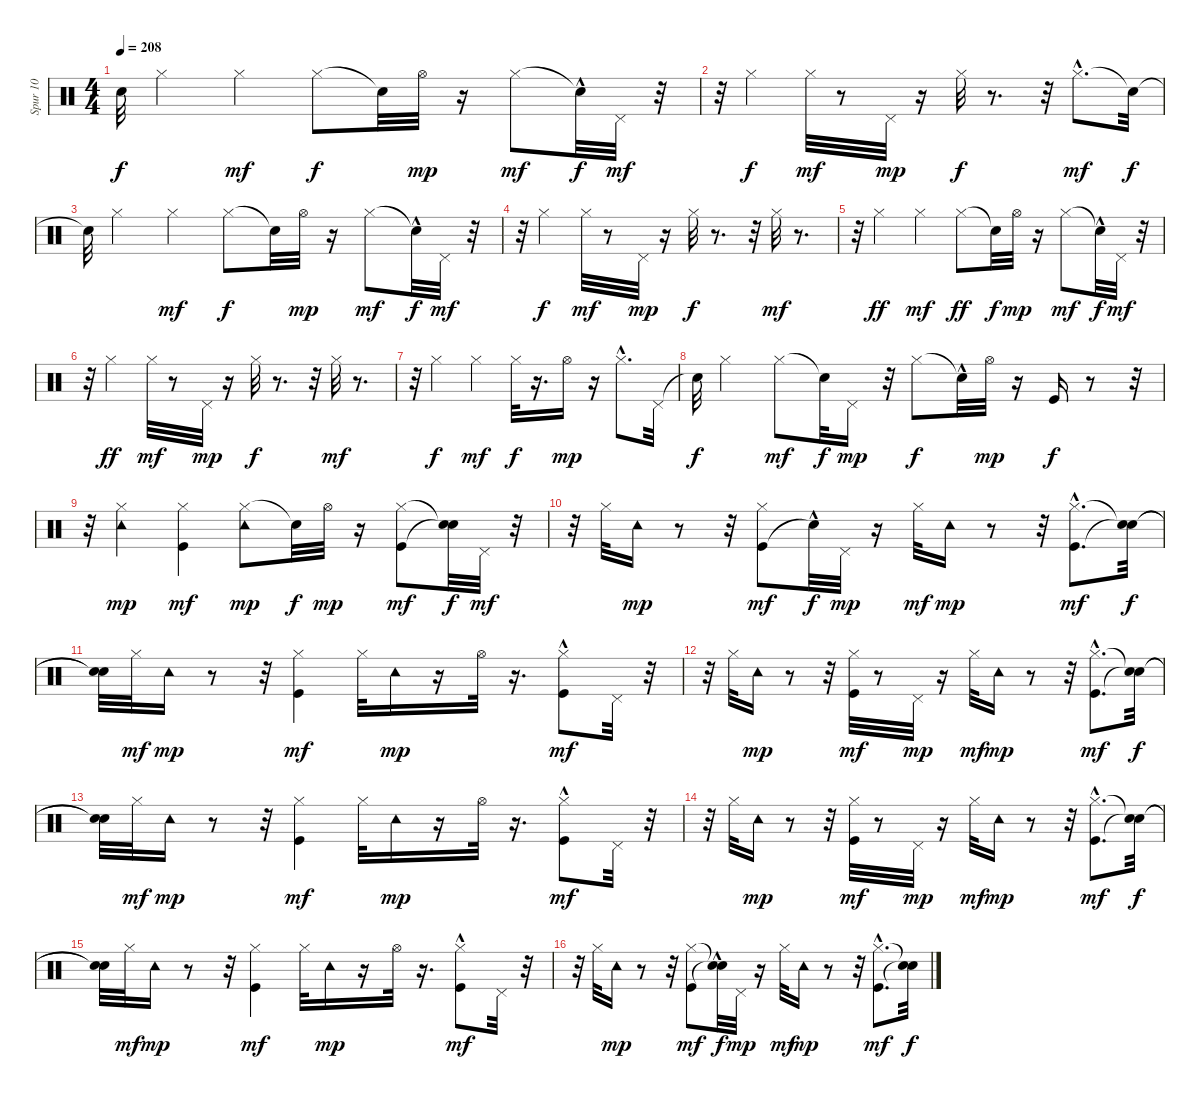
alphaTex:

\track ("Spur 10" "Spur 10") {instrument percussion}
\staff {score}
\articulation defaults
\ts (4 4)
\tempo 208
\clef neutral
\ks c "Snare (hit)"{t}.32{dy f} "Hi-Hat (closed)".4 "Hi-Hat (closed)".4{dy mf} "Hi-Hat (closed)".8{dy f} "Snare (hit)"{t}.32 "Hi-Hat (open)".32{dy mp}
r.16 "Hi-Hat (closed)".8{dy mf} "Snare (hit)"{hac t}.32{dy f} "Pedal Hi-Hat (hit)".32{dy mf} r.32 |
r.32 "Hi-Hat (closed)".4{dy f} "Hi-Hat (closed)".32{dy mf} r.8 "Pedal Hi-Hat (hit)".32{dy mp} r.16 "Hi-Hat (closed)".32{dy f} r.8{d} r.32 "Hi-Hat (closed)"{hac}.8{d dy mf} "Snare (hit)"{t}.32{dy f} |
"Snare (hit)"{t}.32 "Hi-Hat (closed)".4 "Hi-Hat (closed)".4{dy mf} "Hi-Hat (closed)".8{dy f} "Snare (hit)"{t}.32 "Hi-Hat (open)".32{dy mp} r.16 "Hi-Hat (closed)".8{dy mf} "Snare (hit)"{hac t}.32{dy f} "Pedal Hi-Hat (hit)".32{dy mf} r.32 |
r.32 "Hi-Hat (closed)".4{dy f} "Hi-Hat (closed)".32{dy mf} r.8 "Pedal Hi-Hat (hit)".32{dy mp} r.16 "Hi-Hat (closed)".32{dy f} r.8{d} r.32 "Hi-Hat (closed)".32{dy mf} r.8{d} |
r.32 "Hi-Hat (closed)".4{dy ff} "Hi-Hat (closed)".4{dy mf} "Hi-Hat (closed)".8{dy ff} "Snare (hit)"{t}.32{dy f} "Hi-Hat (open)".32{dy mp} r.16 "Hi-Hat (closed)".8{dy mf} "Snare (hit)"{hac t}.32{dy f} "Pedal Hi-Hat (hit)".32{dy mf} r.32 |
r.32 "Hi-Hat (closed)".4{dy ff} "Hi-Hat (closed)".32{dy mf} r.8 "Pedal Hi-Hat (hit)".32{dy mp} r.16 "Hi-Hat (closed)".32{dy f} r.8{d} r.32 "Hi-Hat (closed)".32{dy mf} r.8{d} |
r.32 "Hi-Hat (closed)".4{dy f} "Hi-Hat (closed)".4{dy mf} "Hi-Hat (closed)".32{dy f} r.16{d} "Hi-Hat (open)".16{dy mp} r.16 "Hi-Hat (closed)"{hac}.8{d} "Pedal Hi-Hat (hit)".32 |
"Snare (hit)"{t}.32{dy f} "Hi-Hat (closed)".4 "Hi-Hat (closed)".8{dy mf} "Snare (hit)"{t}.32{dy f} "Pedal Hi-Hat (hit)".16{dy mp} r.32 "Hi-Hat (closed)".8{dy f} "Snare (hit)"{hac t}.32 "Hi-Hat (open)".32{dy mp} r.16 "Kick (hit)".16{dy f} r.8 r.32 |
r.32 ("Hi-Hat (closed)" "Tambourine (hit)").4{dy mp} ("Hi-Hat (closed)" "Kick (hit)").4{dy mf} ("Hi-Hat (closed)" "Tambourine (hit)").8{dy mp} "Snare (hit)"{t}.32{dy f} "Hi-Hat (open)".32{dy mp} r.16 ("Hi-Hat (closed)" "Kick (hit)").8{dy mf} ("Snare (hit)"{t} "Snare (hit)"{t}).32{dy f} "Pedal Hi-Hat (hit)".32{dy mf} r.32 |
r.32 "Hi-Hat (closed)".32 "Tambourine (hit)".16{dy mp} r.8 r.32 ("Kick (hit)" "Hi-Hat (closed)").8{dy mf} "Snare (hit)"{hac t}.32{dy f} "Pedal Hi-Hat (hit)".32{dy mp} r.16 "Hi-Hat (closed)".32{dy mf} "Tambourine (hit)".16{dy mp} r.8 r.32 ("Kick (hit)"{hac} "Hi-Hat (closed)"{hac}).8{d dy mf} ("Snare (hit)"{t} "Snare (hit)"{t}).32{dy f} |
("Snare (hit)"{t} "Snare (hit)"{t}).32 "Hi-Hat (closed)".32{dy mf} "Tambourine (hit)".16{dy mp} r.8 r.32 ("Kick (hit)" "Hi-Hat (closed)").4{dy mf} "Hi-Hat (closed)".32 "Tambourine (hit)".16{dy mp} r.16 "Hi-Hat (open)".32 r.16{d} ("Hi-Hat (closed)"{hac} "Kick (hit)").8{dy mf} "Pedal Hi-Hat (hit)".32 r.32 |
r.32 "Hi-Hat (closed)".32 "Tambourine (hit)".16{dy mp} r.8 r.32 ("Kick (hit)" "Hi-Hat (closed)").32{dy mf} r.8 "Pedal Hi-Hat (hit)".32{dy mp} r.16 "Hi-Hat (closed)".32{dy mf} "Tambourine (hit)".16{dy mp} r.8 r.32 ("Kick (hit)"{hac} "Hi-Hat (closed)"{hac}).8{d dy mf} ("Snare (hit)"{t} "Snare (hit)"{t}).32{dy f} |
("Snare (hit)"{t} "Snare (hit)"{t}).32 "Hi-Hat (closed)".32{dy mf} "Tambourine (hit)".16{dy mp} r.8 r.32 ("Kick (hit)" "Hi-Hat (closed)").4{dy mf} "Hi-Hat (closed)".32 "Tambourine (hit)".16{dy mp} r.16 "Hi-Hat (open)".32 r.16{d} ("Hi-Hat (closed)"{hac} "Kick (hit)").8{dy mf} "Pedal Hi-Hat (hit)".32 r.32 |
r.32 "Hi-Hat (closed)".32 "Tambourine (hit)".16{dy mp} r.8 r.32 ("Kick (hit)" "Hi-Hat (closed)").32{dy mf} r.8 "Pedal Hi-Hat (hit)".32{dy mp} r.16 "Hi-Hat (closed)".32{dy mf} "Tambourine (hit)".16{dy mp} r.8 r.32 ("Kick (hit)"{hac} "Hi-Hat (closed)"{hac}).8{d dy mf} ("Snare (hit)"{t} "Snare (hit)"{t}).32{dy f} |
("Snare (hit)"{t} "Snare (hit)"{t}).32 "Hi-Hat (closed)".32{dy mf} "Tambourine (hit)".16{dy mp} r.8 r.32 ("Kick (hit)" "Hi-Hat (closed)").4{dy mf} "Hi-Hat (closed)".32 "Tambourine (hit)".16{dy mp} r.16 "Hi-Hat (open)".32 r.16{d} ("Hi-Hat (closed)" "Kick (hit)"{hac}).8{dy mf} "Pedal Hi-Hat (hit)".32 r.32 |
r.32 "Hi-Hat (closed)".32 "Tambourine (hit)".16{dy mp} r.8 r.32 ("Kick (hit)" "Hi-Hat (closed)").8{dy mf} ("Snare (hit)"{hac t} "Snare (hit)"{t}).32{dy f} "Pedal Hi-Hat (hit)".32{dy mp} r.16 "Hi-Hat (closed)".32{dy mf} "Tambourine (hit)".16{dy mp} r.8 r.32 ("Kick (hit)"{hac} "Hi-Hat (closed)"{hac}).8{d dy mf} ("Snare (hit)"{t} "Snare (hit)"{t}).32{dy f}
